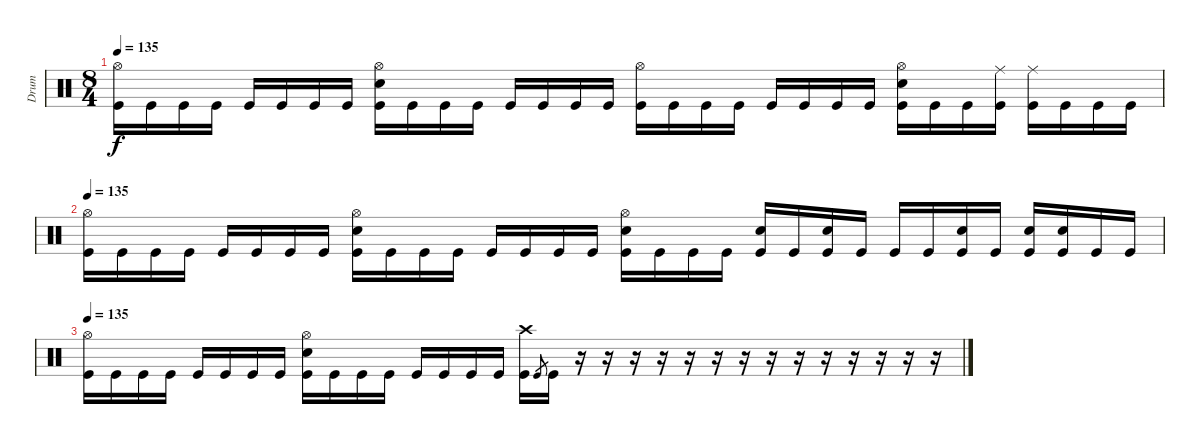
\track ("Drum" "Drum") {instrument percussion}
\staff {score}
\articulation defaults
\ts (8 4)
\tempo 135
\clef neutral
\ks c
("Hi-Hat (open)" "Kick (hit)").16{dy f} "Kick (hit)".16 "Kick (hit)".16 "Kick (hit)".16 "Kick (hit)".16 "Kick (hit)".16 "Kick (hit)".16 "Kick (hit)".16 ("Hi-Hat (open)" "Electric Snare (hit)" "Kick (hit)").16 "Kick (hit)".16 "Kick (hit)".16 "Kick (hit)".16 "Kick (hit)".16 "Kick (hit)".16 "Kick (hit)".16 "Kick (hit)".16 ("Hi-Hat (open)" "Kick (hit)").16 "Kick (hit)".16 "Kick (hit)".16 "Kick (hit)".16 "Kick (hit)".16 "Kick (hit)".16 "Kick (hit)".16 "Kick (hit)".16 ("Hi-Hat (open)" "Electric Snare (hit)" "Kick (hit)").16 "Kick (hit)".16 "Kick (hit)".16 ("Ride (middle)" "Kick (hit)").16 ("Ride (middle)" "Kick (hit)").16 "Kick (hit)".16 "Kick (hit)".16 "Kick (hit)".16 |
\tempo 135
("Hi-Hat (open)" "Kick (hit)").16 "Kick (hit)".16 "Kick (hit)".16 "Kick (hit)".16 "Kick (hit)".16 "Kick (hit)".16 "Kick (hit)".16 "Kick (hit)".16 ("Hi-Hat (open)" "Electric Snare (hit)" "Kick (hit)").16 "Kick (hit)".16 "Kick (hit)".16 "Kick (hit)".16 "Kick (hit)".16 "Kick (hit)".16 "Kick (hit)".16 "Kick (hit)".16 ("Hi-Hat (open)" "Electric Snare (hit)" "Kick (hit)").16 "Kick (hit)".16 "Kick (hit)".16 "Kick (hit)".16 ("Electric Snare (hit)" "Kick (hit)").16 "Kick (hit)".16 ("Electric Snare (hit)" "Kick (hit)").16 "Kick (hit)".16 "Kick (hit)".16 "Kick (hit)".16 ("Electric Snare (hit)" "Kick (hit)").16 "Kick (hit)".16 ("Electric Snare (hit)" "Kick (hit)").16 ("Electric Snare (hit)" "Kick (hit)").16 "Kick (hit)".16 "Kick (hit)".16 |
\tempo 135
("Hi-Hat (open)" "Kick (hit)").16 "Kick (hit)".16 "Kick (hit)".16 "Kick (hit)".16 "Kick (hit)".16 "Kick (hit)".16 "Kick (hit)".16 "Kick (hit)".16 ("Hi-Hat (open)" "Electric Snare (hit)" "Kick (hit)").16 "Kick (hit)".16 "Kick (hit)".16 "Kick (hit)".16 "Kick (hit)".16 "Kick (hit)".16 "Kick (hit)".16 "Kick (hit)".16 ("Crash high (hit)" "Kick (hit)").16 "Kick (hit)".8{gr} "Kick (hit)".16 r.16 r.16 r.16 r.16 r.16 r.16 r.16 r.16 r.16 r.16 r.16 r.16 r.16 r.16
